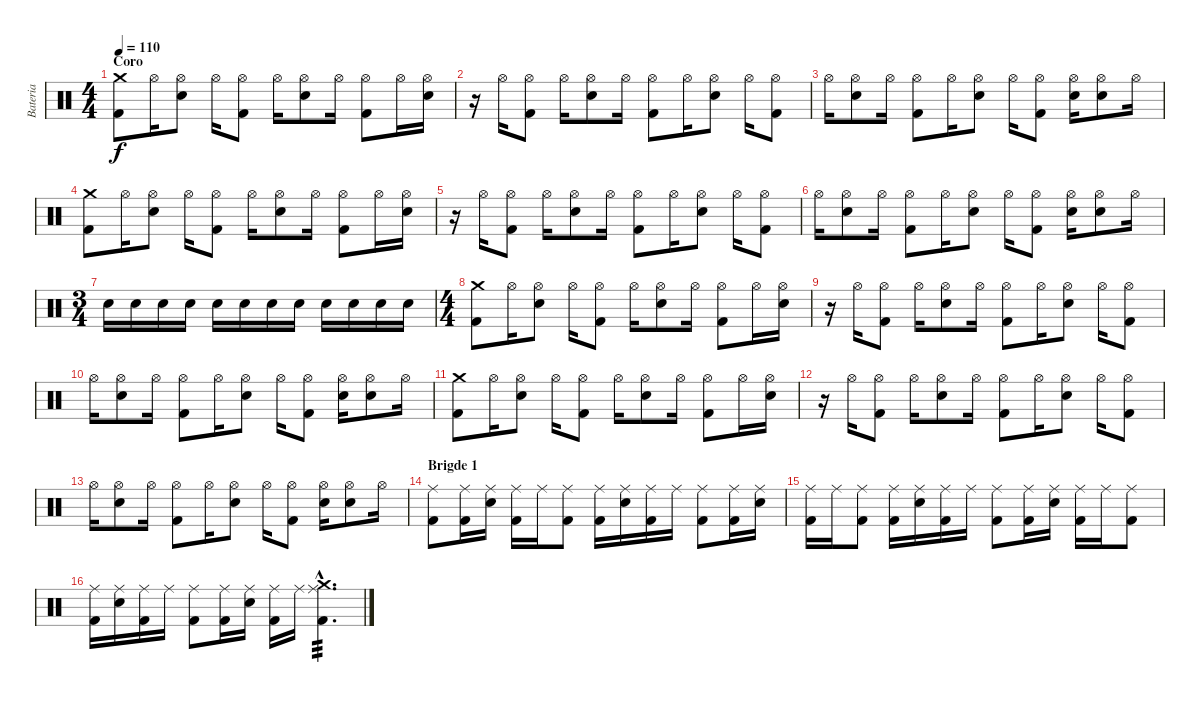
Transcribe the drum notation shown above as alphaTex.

\track ("Bateria" "Bateria") {instrument percussion}
\staff {score}
\articulation defaults
\ts (4 4)
\section ("" "Coro")
\tempo 110
\clef neutral
\ks c
("Crash medium (hit)" "Kick (hit) 2").8{dy f} "Hi-Hat (open)".16 ("Hi-Hat (open)" "Snare (hit) 2").8 "Hi-Hat (open)".16 ("Hi-Hat (open)" "Kick (hit) 2").8 "Hi-Hat (open)".16 ("Hi-Hat (open)" "Snare (hit) 2").8 "Hi-Hat (open)".16 ("Hi-Hat (open)" "Kick (hit) 2").8 "Hi-Hat (open)".16 ("Hi-Hat (open)" "Snare (hit) 2").16 |
r.16 "Hi-Hat (open)".16 ("Hi-Hat (open)" "Kick (hit) 2").8 "Hi-Hat (open)".16 ("Hi-Hat (open)" "Snare (hit) 2").8 "Hi-Hat (open)".16 ("Hi-Hat (open)" "Kick (hit) 2").8 "Hi-Hat (open)".16 ("Hi-Hat (open)" "Snare (hit) 2").8 "Hi-Hat (open)".16 ("Hi-Hat (open)" "Kick (hit) 2").8 |
"Hi-Hat (open)".16 ("Hi-Hat (open)" "Snare (hit) 2").8 "Hi-Hat (open)".16 ("Hi-Hat (open)" "Kick (hit) 2").8 "Hi-Hat (open)".16 ("Hi-Hat (open)" "Snare (hit) 2").8 "Hi-Hat (open)".16 ("Hi-Hat (open)" "Kick (hit) 2").8 ("Hi-Hat (open)" "Snare (hit) 2").16 ("Hi-Hat (open)" "Snare (hit) 2").8 "Hi-Hat (open)".16 |
("Crash medium (hit)" "Kick (hit) 2").8 "Hi-Hat (open)".16 ("Hi-Hat (open)" "Snare (hit) 2").8 "Hi-Hat (open)".16 ("Hi-Hat (open)" "Kick (hit) 2").8 "Hi-Hat (open)".16 ("Hi-Hat (open)" "Snare (hit) 2").8 "Hi-Hat (open)".16 ("Hi-Hat (open)" "Kick (hit) 2").8 "Hi-Hat (open)".16 ("Hi-Hat (open)" "Snare (hit) 2").16 |
r.16 "Hi-Hat (open)".16 ("Hi-Hat (open)" "Kick (hit) 2").8 "Hi-Hat (open)".16 ("Hi-Hat (open)" "Snare (hit) 2").8 "Hi-Hat (open)".16 ("Hi-Hat (open)" "Kick (hit) 2").8 "Hi-Hat (open)".16 ("Hi-Hat (open)" "Snare (hit) 2").8 "Hi-Hat (open)".16 ("Hi-Hat (open)" "Kick (hit) 2").8 |
"Hi-Hat (open)".16 ("Hi-Hat (open)" "Snare (hit) 2").8 "Hi-Hat (open)".16 ("Hi-Hat (open)" "Kick (hit) 2").8 "Hi-Hat (open)".16 ("Hi-Hat (open)" "Snare (hit) 2").8 "Hi-Hat (open)".16 ("Hi-Hat (open)" "Kick (hit) 2").8 ("Hi-Hat (open)" "Snare (hit) 2").16 ("Hi-Hat (open)" "Snare (hit) 2").8 "Hi-Hat (open)".16 |
\ts (3 4)
"Snare (hit) 2".16 "Snare (hit) 2".16 "Snare (hit) 2".16 "Snare (hit) 2".16 "Snare (hit) 2".16 "Snare (hit) 2".16 "Snare (hit) 2".16 "Snare (hit) 2".16 "Snare (hit) 2".16 "Snare (hit) 2".16 "Snare (hit) 2".16 "Snare (hit) 2".16 |
\ts (4 4)
("Crash medium (hit)" "Kick (hit) 2").8 "Hi-Hat (open)".16 ("Hi-Hat (open)" "Snare (hit) 2").8 "Hi-Hat (open)".16 ("Hi-Hat (open)" "Kick (hit) 2").8 "Hi-Hat (open)".16 ("Hi-Hat (open)" "Snare (hit) 2").8 "Hi-Hat (open)".16 ("Hi-Hat (open)" "Kick (hit) 2").8 "Hi-Hat (open)".16 ("Hi-Hat (open)" "Snare (hit) 2").16 |
r.16 "Hi-Hat (open)".16 ("Hi-Hat (open)" "Kick (hit) 2").8 "Hi-Hat (open)".16 ("Hi-Hat (open)" "Snare (hit) 2").8 "Hi-Hat (open)".16 ("Hi-Hat (open)" "Kick (hit) 2").8 "Hi-Hat (open)".16 ("Hi-Hat (open)" "Snare (hit) 2").8 "Hi-Hat (open)".16 ("Hi-Hat (open)" "Kick (hit) 2").8 |
"Hi-Hat (open)".16 ("Hi-Hat (open)" "Snare (hit) 2").8 "Hi-Hat (open)".16 ("Hi-Hat (open)" "Kick (hit) 2").8 "Hi-Hat (open)".16 ("Hi-Hat (open)" "Snare (hit) 2").8 "Hi-Hat (open)".16 ("Hi-Hat (open)" "Kick (hit) 2").8 ("Hi-Hat (open)" "Snare (hit) 2").16 ("Hi-Hat (open)" "Snare (hit) 2").8 "Hi-Hat (open)".16 |
("Crash medium (hit)" "Kick (hit) 2").8 "Hi-Hat (open)".16 ("Hi-Hat (open)" "Snare (hit) 2").8 "Hi-Hat (open)".16 ("Hi-Hat (open)" "Kick (hit) 2").8 "Hi-Hat (open)".16 ("Hi-Hat (open)" "Snare (hit) 2").8 "Hi-Hat (open)".16 ("Hi-Hat (open)" "Kick (hit) 2").8 "Hi-Hat (open)".16 ("Hi-Hat (open)" "Snare (hit) 2").16 |
r.16 "Hi-Hat (open)".16 ("Hi-Hat (open)" "Kick (hit) 2").8 "Hi-Hat (open)".16 ("Hi-Hat (open)" "Snare (hit) 2").8 "Hi-Hat (open)".16 ("Hi-Hat (open)" "Kick (hit) 2").8 "Hi-Hat (open)".16 ("Hi-Hat (open)" "Snare (hit) 2").8 "Hi-Hat (open)".16 ("Hi-Hat (open)" "Kick (hit) 2").8 |
"Hi-Hat (open)".16 ("Hi-Hat (open)" "Snare (hit) 2").8 "Hi-Hat (open)".16 ("Hi-Hat (open)" "Kick (hit) 2").8 "Hi-Hat (open)".16 ("Hi-Hat (open)" "Snare (hit) 2").8 "Hi-Hat (open)".16 ("Hi-Hat (open)" "Kick (hit) 2").8 ("Hi-Hat (open)" "Snare (hit) 2").16 ("Hi-Hat (open)" "Snare (hit) 2").8 "Hi-Hat (open)".16 |
\section ("" "Brigde 1")
("Ride (middle)" "Kick (hit) 2").8 ("Ride (middle)" "Kick (hit) 2").16 ("Ride (middle)" "Snare (hit) 2").16 ("Ride (middle)" "Kick (hit) 2").16 "Ride (middle)".16 ("Ride (middle)" "Kick (hit) 2").8 ("Ride (middle)" "Kick (hit) 2").16 ("Ride (middle)" "Snare (hit) 2").16 ("Ride (middle)" "Kick (hit) 2").16 "Ride (middle)".16 ("Ride (middle)" "Kick (hit) 2").8 ("Ride (middle)" "Kick (hit) 2").16 ("Ride (middle)" "Snare (hit) 2").16 |
("Ride (middle)" "Kick (hit) 2").16 "Ride (middle)".16 ("Ride (middle)" "Kick (hit) 2").8 ("Ride (middle)" "Kick (hit) 2").16 ("Ride (middle)" "Snare (hit) 2").16 ("Ride (middle)" "Kick (hit) 2").16 "Ride (middle)".16 ("Ride (middle)" "Kick (hit) 2").8 ("Ride (middle)" "Kick (hit) 2").16 ("Ride (middle)" "Snare (hit) 2").16 ("Ride (middle)" "Kick (hit) 2").16 "Ride (middle)".16 ("Ride (middle)" "Kick (hit) 2").8 |
("Ride (middle)" "Kick (hit) 2").16 ("Ride (middle)" "Snare (hit) 2").16 ("Ride (middle)" "Kick (hit) 2").16 "Ride (middle)".16 ("Ride (middle)" "Kick (hit) 2").8 ("Ride (middle)" "Kick (hit) 2").16 ("Ride (middle)" "Snare (hit) 2").16 ("Ride (middle)" "Kick (hit) 2").16 "Ride (middle)".16 ("Ride (middle)"{hac} "Crash medium (hit)"{hac} "Kick (hit) 2"{hac}).4{d tp 3}
